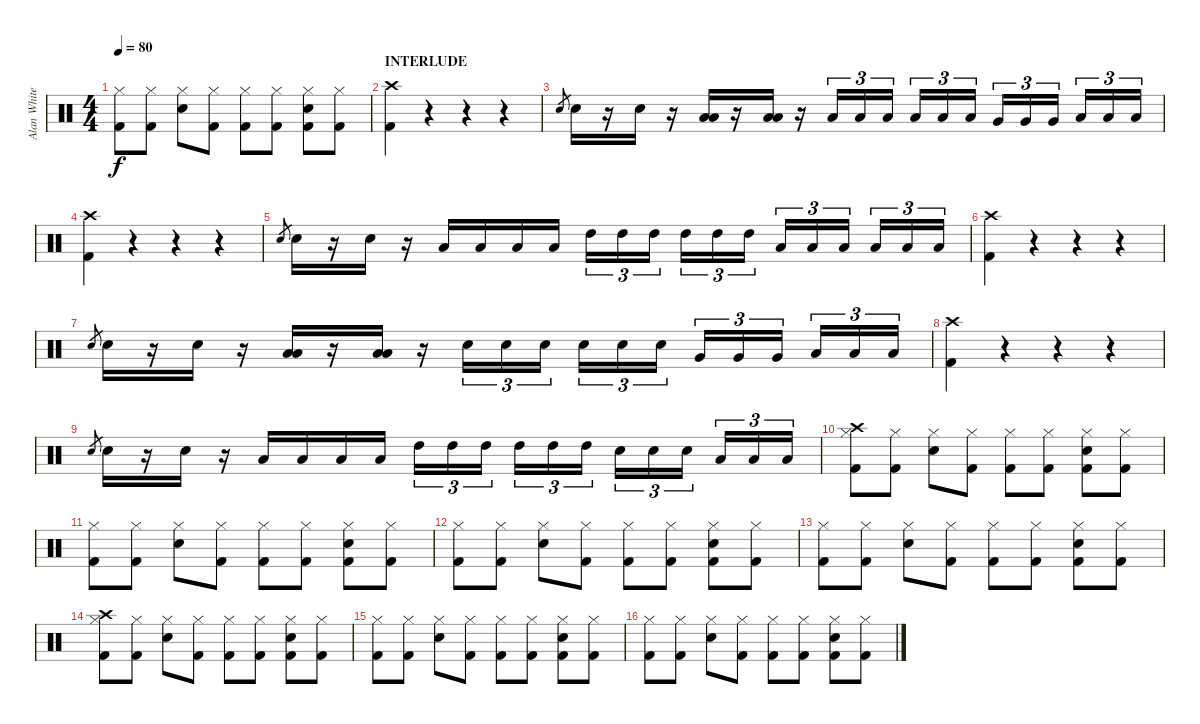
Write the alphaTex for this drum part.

\track ("Alan White" "Alan White") {instrument percussion}
\staff {score}
\articulation defaults
\ts (4 4)
\tempo 80
\clef neutral
\ks c
("Hi-Hat (closed)" "Kick (hit) 2").8{dy f} ("Hi-Hat (closed)" "Kick (hit) 2").8 ("Hi-Hat (closed)" "Snare (hit) 2").8 ("Hi-Hat (closed)" "Kick (hit) 2").8 ("Hi-Hat (closed)" "Kick (hit) 2").8 ("Hi-Hat (closed)" "Kick (hit) 2").8 ("Hi-Hat (closed)" "Snare (hit) 2" "Kick (hit) 2").8 ("Hi-Hat (closed)" "Kick (hit) 2").8 |
\section ("" "INTERLUDE")
("Crash high (hit)" "Kick (hit) 2").4 r.4 r.4 r.4 |
"Snare (hit) 2".8{gr} "Snare (hit) 2".16 r.16 "Snare (hit) 2".16 r.16 ("Low Tom (hit)" "Low Floor Tom (hit)").16 r.16 ("Low Floor Tom (hit)" "Low Tom (hit)").16 r.16 "Low Tom (hit)".16{tu (3 2)} "Low Tom (hit)".16{tu (3 2)} "Low Tom (hit)".16{tu (3 2)} "Low Tom (hit)".16{tu (3 2)} "Low Tom (hit)".16{tu (3 2)} "Low Tom (hit)".16{tu (3 2)} "Very Low Tom (hit)".16{tu (3 2)} "Very Low Tom (hit)".16{tu (3 2)} "Very Low Tom (hit)".16{tu (3 2)} "Low Floor Tom (hit)".16{tu (3 2)} "Low Floor Tom (hit)".16{tu (3 2)} "Low Floor Tom (hit)".16{tu (3 2)} |
("Crash high (hit)" "Kick (hit) 2").4 r.4 r.4 r.4 |
"Snare (hit) 2".8{gr} "Snare (hit) 2".16 r.16 "Snare (hit) 2".16 r.16 "Low Tom (hit)".16 "Low Tom (hit)".16 "Low Tom (hit)".16 "Low Tom (hit)".16 "High Tom (hit)".16{tu (3 2)} "High Tom (hit)".16{tu (3 2)} "High Tom (hit)".16{tu (3 2)} "High Tom (hit)".16{tu (3 2)} "High Tom (hit)".16{tu (3 2)} "High Tom (hit)".16{tu (3 2)} "Low Tom (hit)".16{tu (3 2)} "Low Tom (hit)".16{tu (3 2)} "Low Tom (hit)".16{tu (3 2)} "Low Floor Tom (hit)".16{tu (3 2)} "Low Floor Tom (hit)".16{tu (3 2)} "Low Floor Tom (hit)".16{tu (3 2)} |
("Crash high (hit)" "Kick (hit) 2").4 r.4 r.4 r.4 |
"Snare (hit) 2".8{gr} "Snare (hit) 2".16 r.16 "Snare (hit) 2".16 r.16 ("Low Tom (hit)" "Low Floor Tom (hit)").16 r.16 ("Low Floor Tom (hit)" "Low Tom (hit)").16 r.16 "Snare (hit) 2".16{tu (3 2)} "Snare (hit) 2".16{tu (3 2)} "Snare (hit) 2".16{tu (3 2)} "Snare (hit) 2".16{tu (3 2)} "Snare (hit) 2".16{tu (3 2)} "Snare (hit) 2".16{tu (3 2)} "Very Low Tom (hit)".16{tu (3 2)} "Very Low Tom (hit)".16{tu (3 2)} "Very Low Tom (hit)".16{tu (3 2)} "Low Floor Tom (hit)".16{tu (3 2)} "Low Floor Tom (hit)".16{tu (3 2)} "Low Floor Tom (hit)".16{tu (3 2)} |
("Crash high (hit)" "Kick (hit) 2").4 r.4 r.4 r.4 |
"Snare (hit) 2".8{gr} "Snare (hit) 2".16 r.16 "Snare (hit) 2".16 r.16 "Low Tom (hit)".16 "Low Tom (hit)".16 "Low Tom (hit)".16 "Low Tom (hit)".16 "High Tom (hit)".16{tu (3 2)} "High Tom (hit)".16{tu (3 2)} "High Tom (hit)".16{tu (3 2)} "High Tom (hit)".16{tu (3 2)} "High Tom (hit)".16{tu (3 2)} "High Tom (hit)".16{tu (3 2)} "Snare (hit) 2".16{tu (3 2)} "Snare (hit) 2".16{tu (3 2)} "Snare (hit) 2".16{tu (3 2)} "Low Floor Tom (hit)".16{tu (3 2)} "Low Floor Tom (hit)".16{tu (3 2)} "Low Floor Tom (hit)".16{tu (3 2)} |
("Hi-Hat (closed)" "Crash high (hit)" "Kick (hit) 2").8 ("Hi-Hat (closed)" "Kick (hit) 2").8 ("Hi-Hat (closed)" "Snare (hit) 2").8 ("Hi-Hat (closed)" "Kick (hit) 2").8 ("Hi-Hat (closed)" "Kick (hit) 2").8 ("Hi-Hat (closed)" "Kick (hit) 2").8 ("Hi-Hat (closed)" "Snare (hit) 2" "Kick (hit) 2").8 ("Hi-Hat (closed)" "Kick (hit) 2").8 |
("Hi-Hat (closed)" "Kick (hit) 2").8 ("Hi-Hat (closed)" "Kick (hit) 2").8 ("Hi-Hat (closed)" "Snare (hit) 2").8 ("Hi-Hat (closed)" "Kick (hit) 2").8 ("Hi-Hat (closed)" "Kick (hit) 2").8 ("Hi-Hat (closed)" "Kick (hit) 2").8 ("Hi-Hat (closed)" "Snare (hit) 2" "Kick (hit) 2").8 ("Hi-Hat (closed)" "Kick (hit) 2").8 |
("Hi-Hat (closed)" "Kick (hit) 2").8 ("Hi-Hat (closed)" "Kick (hit) 2").8 ("Hi-Hat (closed)" "Snare (hit) 2").8 ("Hi-Hat (closed)" "Kick (hit) 2").8 ("Hi-Hat (closed)" "Kick (hit) 2").8 ("Hi-Hat (closed)" "Kick (hit) 2").8 ("Hi-Hat (closed)" "Snare (hit) 2" "Kick (hit) 2").8 ("Hi-Hat (closed)" "Kick (hit) 2").8 |
("Hi-Hat (closed)" "Kick (hit) 2").8 ("Hi-Hat (closed)" "Kick (hit) 2").8 ("Hi-Hat (closed)" "Snare (hit) 2").8 ("Hi-Hat (closed)" "Kick (hit) 2").8 ("Hi-Hat (closed)" "Kick (hit) 2").8 ("Hi-Hat (closed)" "Kick (hit) 2").8 ("Hi-Hat (closed)" "Snare (hit) 2" "Kick (hit) 2").8 ("Hi-Hat (closed)" "Kick (hit) 2").8 |
("Hi-Hat (closed)" "Crash high (hit)" "Kick (hit) 2").8 ("Hi-Hat (closed)" "Kick (hit) 2").8 ("Hi-Hat (closed)" "Snare (hit) 2").8 ("Hi-Hat (closed)" "Kick (hit) 2").8 ("Hi-Hat (closed)" "Kick (hit) 2").8 ("Hi-Hat (closed)" "Kick (hit) 2").8 ("Hi-Hat (closed)" "Snare (hit) 2" "Kick (hit) 2").8 ("Hi-Hat (closed)" "Kick (hit) 2").8 |
("Hi-Hat (closed)" "Kick (hit) 2").8 ("Hi-Hat (closed)" "Kick (hit) 2").8 ("Hi-Hat (closed)" "Snare (hit) 2").8 ("Hi-Hat (closed)" "Kick (hit) 2").8 ("Hi-Hat (closed)" "Kick (hit) 2").8 ("Hi-Hat (closed)" "Kick (hit) 2").8 ("Hi-Hat (closed)" "Snare (hit) 2" "Kick (hit) 2").8 ("Hi-Hat (closed)" "Kick (hit) 2").8 |
("Hi-Hat (closed)" "Kick (hit) 2").8 ("Hi-Hat (closed)" "Kick (hit) 2").8 ("Hi-Hat (closed)" "Snare (hit) 2").8 ("Hi-Hat (closed)" "Kick (hit) 2").8 ("Hi-Hat (closed)" "Kick (hit) 2").8 ("Hi-Hat (closed)" "Kick (hit) 2").8 ("Hi-Hat (closed)" "Snare (hit) 2" "Kick (hit) 2").8 ("Hi-Hat (closed)" "Kick (hit) 2").8
